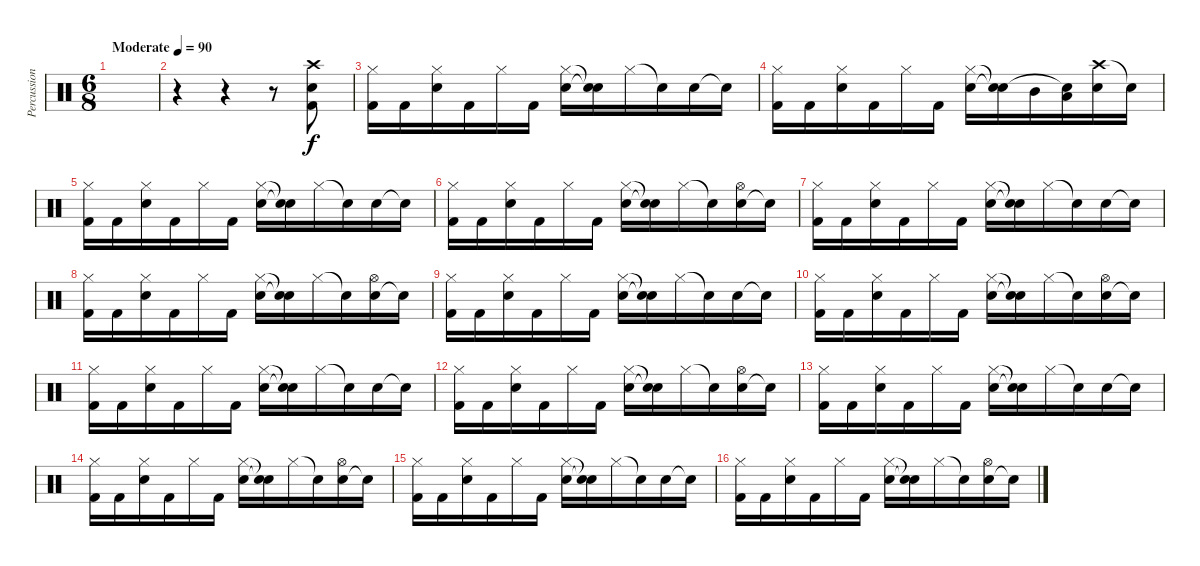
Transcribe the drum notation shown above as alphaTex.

\track ("Percussions" "Percussion") {instrument percussion}
\staff {score}
\articulation defaults
\ts (6 8)
\tempo (90 "Moderate")
\clef neutral
\ks c
|
r.4 r.4 r.8 ("Kick (hit) 2" "Snare (hit) 2" "Crash high (hit)").8 |
("Kick (hit) 2" "Hi-Hat (closed)").16 "Kick (hit) 2".16 ("Snare (hit) 2" "Hi-Hat (closed)").16 "Kick (hit) 2".16 "Hi-Hat (closed)".16 "Kick (hit) 2".16 ("Snare (hit) 2" "Hi-Hat (closed)").16 ("Snare (hit)"{t} "Snare (hit)"{t}).16 "Hi-Hat (closed)".16 "Snare (hit)"{t}.16 "Snare (hit) 2".16 "Snare (hit)"{t}.16 |
("Kick (hit) 2" "Hi-Hat (closed)").16 "Kick (hit) 2".16 ("Snare (hit) 2" "Hi-Hat (closed)").16 "Kick (hit) 2".16 "Hi-Hat (closed)".16 "Kick (hit) 2".16 ("Snare (hit) 2" "Hi-Hat (closed)").16 ("Snare (hit)"{t} "Snare (hit)"{t}).16 "Mid Tom (hit)".16 ("Low Tom (hit)" "Snare (hit)"{t}).16 ("Crash high (hit)" "Snare (hit) 2").16 "Snare (hit)"{t}.16 |
("Kick (hit) 2" "Hi-Hat (closed)").16 "Kick (hit) 2".16 ("Snare (hit) 2" "Hi-Hat (closed)").16 "Kick (hit) 2".16 "Hi-Hat (closed)".16 "Kick (hit) 2".16 ("Snare (hit) 2" "Hi-Hat (closed)").16 ("Snare (hit)"{t} "Snare (hit)"{t}).16 "Hi-Hat (closed)".16 "Snare (hit)"{t}.16 "Snare (hit) 2".16 "Snare (hit)"{t}.16 |
("Kick (hit) 2" "Hi-Hat (closed)").16 "Kick (hit) 2".16 ("Snare (hit) 2" "Hi-Hat (closed)").16 "Kick (hit) 2".16 "Hi-Hat (closed)".16 "Kick (hit) 2".16 ("Snare (hit) 2" "Hi-Hat (closed)").16 ("Snare (hit)"{t} "Snare (hit)"{t}).16 "Hi-Hat (closed)".16 "Snare (hit)"{t}.16 ("Snare (hit) 2" "Hi-Hat (open)").16 "Snare (hit)"{t}.16 |
("Kick (hit) 2" "Hi-Hat (closed)").16 "Kick (hit) 2".16 ("Snare (hit) 2" "Hi-Hat (closed)").16 "Kick (hit) 2".16 "Hi-Hat (closed)".16 "Kick (hit) 2".16 ("Snare (hit) 2" "Hi-Hat (closed)").16 ("Snare (hit)"{t} "Snare (hit)"{t}).16 "Hi-Hat (closed)".16 "Snare (hit)"{t}.16 "Snare (hit) 2".16 "Snare (hit)"{t}.16 |
("Kick (hit) 2" "Hi-Hat (closed)").16 "Kick (hit) 2".16 ("Snare (hit) 2" "Hi-Hat (closed)").16 "Kick (hit) 2".16 "Hi-Hat (closed)".16 "Kick (hit) 2".16 ("Snare (hit) 2" "Hi-Hat (closed)").16 ("Snare (hit)"{t} "Snare (hit)"{t}).16 "Hi-Hat (closed)".16 "Snare (hit)"{t}.16 ("Snare (hit) 2" "Hi-Hat (open)").16 "Snare (hit)"{t}.16 |
("Kick (hit) 2" "Hi-Hat (closed)").16 "Kick (hit) 2".16 ("Snare (hit) 2" "Hi-Hat (closed)").16 "Kick (hit) 2".16 "Hi-Hat (closed)".16 "Kick (hit) 2".16 ("Snare (hit) 2" "Hi-Hat (closed)").16 ("Snare (hit)"{t} "Snare (hit)"{t}).16 "Hi-Hat (closed)".16 "Snare (hit)"{t}.16 "Snare (hit) 2".16 "Snare (hit)"{t}.16 |
("Kick (hit) 2" "Hi-Hat (closed)").16 "Kick (hit) 2".16 ("Snare (hit) 2" "Hi-Hat (closed)").16 "Kick (hit) 2".16 "Hi-Hat (closed)".16 "Kick (hit) 2".16 ("Snare (hit) 2" "Hi-Hat (closed)").16 ("Snare (hit)"{t} "Snare (hit)"{t}).16 "Hi-Hat (closed)".16 "Snare (hit)"{t}.16 ("Snare (hit) 2" "Hi-Hat (open)").16 "Snare (hit)"{t}.16 |
("Kick (hit) 2" "Hi-Hat (closed)").16 "Kick (hit) 2".16 ("Snare (hit) 2" "Hi-Hat (closed)").16 "Kick (hit) 2".16 "Hi-Hat (closed)".16 "Kick (hit) 2".16 ("Snare (hit) 2" "Hi-Hat (closed)").16 ("Snare (hit)"{t} "Snare (hit)"{t}).16 "Hi-Hat (closed)".16 "Snare (hit)"{t}.16 "Snare (hit) 2".16 "Snare (hit)"{t}.16 |
("Kick (hit) 2" "Hi-Hat (closed)").16 "Kick (hit) 2".16 ("Snare (hit) 2" "Hi-Hat (closed)").16 "Kick (hit) 2".16 "Hi-Hat (closed)".16 "Kick (hit) 2".16 ("Snare (hit) 2" "Hi-Hat (closed)").16 ("Snare (hit)"{t} "Snare (hit)"{t}).16 "Hi-Hat (closed)".16 "Snare (hit)"{t}.16 ("Snare (hit) 2" "Hi-Hat (open)").16 "Snare (hit)"{t}.16 |
("Kick (hit) 2" "Hi-Hat (closed)").16 "Kick (hit) 2".16 ("Snare (hit) 2" "Hi-Hat (closed)").16 "Kick (hit) 2".16 "Hi-Hat (closed)".16 "Kick (hit) 2".16 ("Snare (hit) 2" "Hi-Hat (closed)").16 ("Snare (hit)"{t} "Snare (hit)"{t}).16 "Hi-Hat (closed)".16 "Snare (hit)"{t}.16 "Snare (hit) 2".16 "Snare (hit)"{t}.16 |
("Kick (hit) 2" "Hi-Hat (closed)").16 "Kick (hit) 2".16 ("Snare (hit) 2" "Hi-Hat (closed)").16 "Kick (hit) 2".16 "Hi-Hat (closed)".16 "Kick (hit) 2".16 ("Snare (hit) 2" "Hi-Hat (closed)").16 ("Snare (hit)"{t} "Snare (hit)"{t}).16 "Hi-Hat (closed)".16 "Snare (hit)"{t}.16 ("Snare (hit) 2" "Hi-Hat (open)").16 "Snare (hit)"{t}.16 |
("Kick (hit) 2" "Hi-Hat (closed)").16 "Kick (hit) 2".16 ("Snare (hit) 2" "Hi-Hat (closed)").16 "Kick (hit) 2".16 "Hi-Hat (closed)".16 "Kick (hit) 2".16 ("Snare (hit) 2" "Hi-Hat (closed)").16 ("Snare (hit)"{t} "Snare (hit)"{t}).16 "Hi-Hat (closed)".16 "Snare (hit)"{t}.16 "Snare (hit) 2".16 "Snare (hit)"{t}.16 |
("Kick (hit) 2" "Hi-Hat (closed)").16 "Kick (hit) 2".16 ("Snare (hit) 2" "Hi-Hat (closed)").16 "Kick (hit) 2".16 "Hi-Hat (closed)".16 "Kick (hit) 2".16 ("Snare (hit) 2" "Hi-Hat (closed)").16 ("Snare (hit)"{t} "Snare (hit)"{t}).16 "Hi-Hat (closed)".16 "Snare (hit)"{t}.16 ("Snare (hit) 2" "Hi-Hat (open)").16 "Snare (hit)"{t}.16
